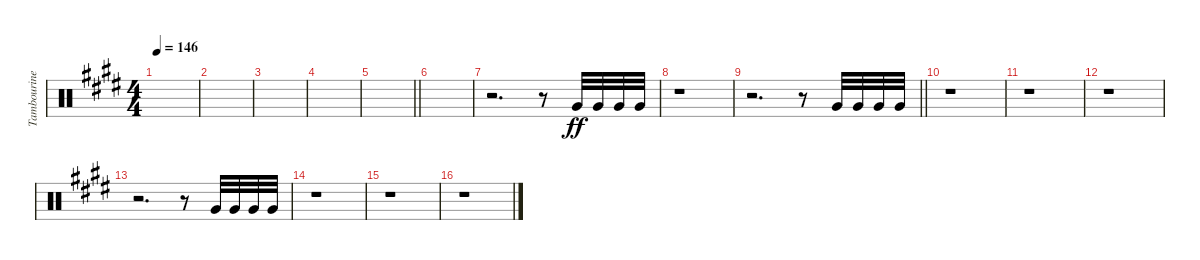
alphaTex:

\track ("Tambourine" "Tambourine") {instrument percussion}
\staff {score}
\articulation defaults
\ts (4 4)
\tempo 146
\clef neutral
\ks c#minor
|
|
|
|
\barLineRight lightlight
|
|
r.2{d} r.8 "Very Low Tom (hit)".32{dy ff} "Very Low Tom (hit)".32 "Very Low Tom (hit)".32 "Very Low Tom (hit)".32 |
r.1 |
\barLineRight lightlight
r.2{d} r.8 "Very Low Tom (hit)".32 "Very Low Tom (hit)".32 "Very Low Tom (hit)".32 "Very Low Tom (hit)".32 |
r.1 |
r.1 |
r.1 |
r.2{d} r.8 "Very Low Tom (hit)".32 "Very Low Tom (hit)".32 "Very Low Tom (hit)".32 "Very Low Tom (hit)".32 |
r.1 |
r.1 |
r.1
